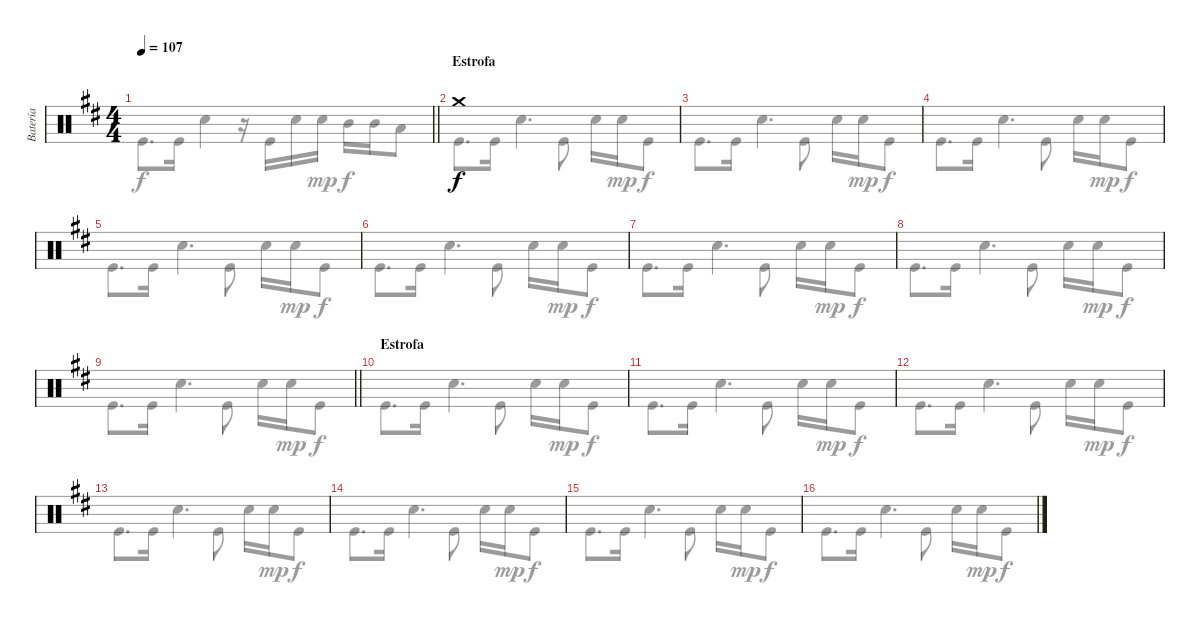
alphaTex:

\track ("Batería" "Batería") {instrument percussion}
\staff {score}
\articulation defaults
\voice
\ts (4 4)
\tempo 107
\clef neutral
\barLineRight lightlight
\ks d
|
\section ("" "Estrofa")
"Crash medium (hit)".1 |
|
|
|
|
|
|
\barLineRight lightlight
|
\section ("" "Estrofa")
|
|
|
|
|
|
\voice
\clef neutral
\ottava regular
\simile none
\barLineRight lightlight
\ks d "Kick (hit)".8{d dy f} "Kick (hit)".16 "Electric Snare (hit)".4
r.16 "Kick (hit)".16 "Electric Snare (hit)".16 "Electric Snare (hit)".16{dy mp} "Mid Tom (hit)".16{dy f} "Mid Tom (hit)".16 "Low Tom (hit)".8 |
"Kick (hit)".8{d} "Kick (hit)".16 "Electric Snare (hit)".4{d} "Kick (hit)".8 "Electric Snare (hit)".16 "Electric Snare (hit)".16{dy mp} "Kick (hit)".8{dy f} |
"Kick (hit)".8{d} "Kick (hit)".16 "Electric Snare (hit)".4{d} "Kick (hit)".8 "Electric Snare (hit)".16 "Electric Snare (hit)".16{dy mp} "Kick (hit)".8{dy f} |
"Kick (hit)".8{d} "Kick (hit)".16 "Electric Snare (hit)".4{d} "Kick (hit)".8 "Electric Snare (hit)".16 "Electric Snare (hit)".16{dy mp} "Kick (hit)".8{dy f} |
"Kick (hit)".8{d} "Kick (hit)".16 "Electric Snare (hit)".4{d} "Kick (hit)".8 "Electric Snare (hit)".16 "Electric Snare (hit)".16{dy mp} "Kick (hit)".8{dy f} |
"Kick (hit)".8{d} "Kick (hit)".16 "Electric Snare (hit)".4{d} "Kick (hit)".8 "Electric Snare (hit)".16 "Electric Snare (hit)".16{dy mp} "Kick (hit)".8{dy f} |
"Kick (hit)".8{d} "Kick (hit)".16 "Electric Snare (hit)".4{d} "Kick (hit)".8 "Electric Snare (hit)".16 "Electric Snare (hit)".16{dy mp} "Kick (hit)".8{dy f} |
"Kick (hit)".8{d} "Kick (hit)".16 "Electric Snare (hit)".4{d} "Kick (hit)".8 "Electric Snare (hit)".16 "Electric Snare (hit)".16{dy mp} "Kick (hit)".8{dy f} |
\barLineRight lightlight "Kick (hit)".8{d} "Kick (hit)".16 "Electric Snare (hit)".4{d} "Kick (hit)".8 "Electric Snare (hit)".16 "Electric Snare (hit)".16{dy mp} "Kick (hit)".8{dy f}
|
"Kick (hit)".8{d} "Kick (hit)".16 "Electric Snare (hit)".4{d} "Kick (hit)".8 "Electric Snare (hit)".16 "Electric Snare (hit)".16{dy mp} "Kick (hit)".8{dy f} |
"Kick (hit)".8{d} "Kick (hit)".16 "Electric Snare (hit)".4{d} "Kick (hit)".8 "Electric Snare (hit)".16 "Electric Snare (hit)".16{dy mp} "Kick (hit)".8{dy f} |
"Kick (hit)".8{d} "Kick (hit)".16 "Electric Snare (hit)".4{d} "Kick (hit)".8 "Electric Snare (hit)".16 "Electric Snare (hit)".16{dy mp} "Kick (hit)".8{dy f} |
"Kick (hit)".8{d} "Kick (hit)".16 "Electric Snare (hit)".4{d} "Kick (hit)".8 "Electric Snare (hit)".16 "Electric Snare (hit)".16{dy mp} "Kick (hit)".8{dy f} |
"Kick (hit)".8{d} "Kick (hit)".16 "Electric Snare (hit)".4{d} "Kick (hit)".8 "Electric Snare (hit)".16 "Electric Snare (hit)".16{dy mp} "Kick (hit)".8{dy f} |
"Kick (hit)".8{d} "Kick (hit)".16 "Electric Snare (hit)".4{d} "Kick (hit)".8 "Electric Snare (hit)".16 "Electric Snare (hit)".16{dy mp} "Kick (hit)".8{dy f} |
"Kick (hit)".8{d} "Kick (hit)".16 "Electric Snare (hit)".4{d} "Kick (hit)".8 "Electric Snare (hit)".16 "Electric Snare (hit)".16{dy mp} "Kick (hit)".8{dy f}
